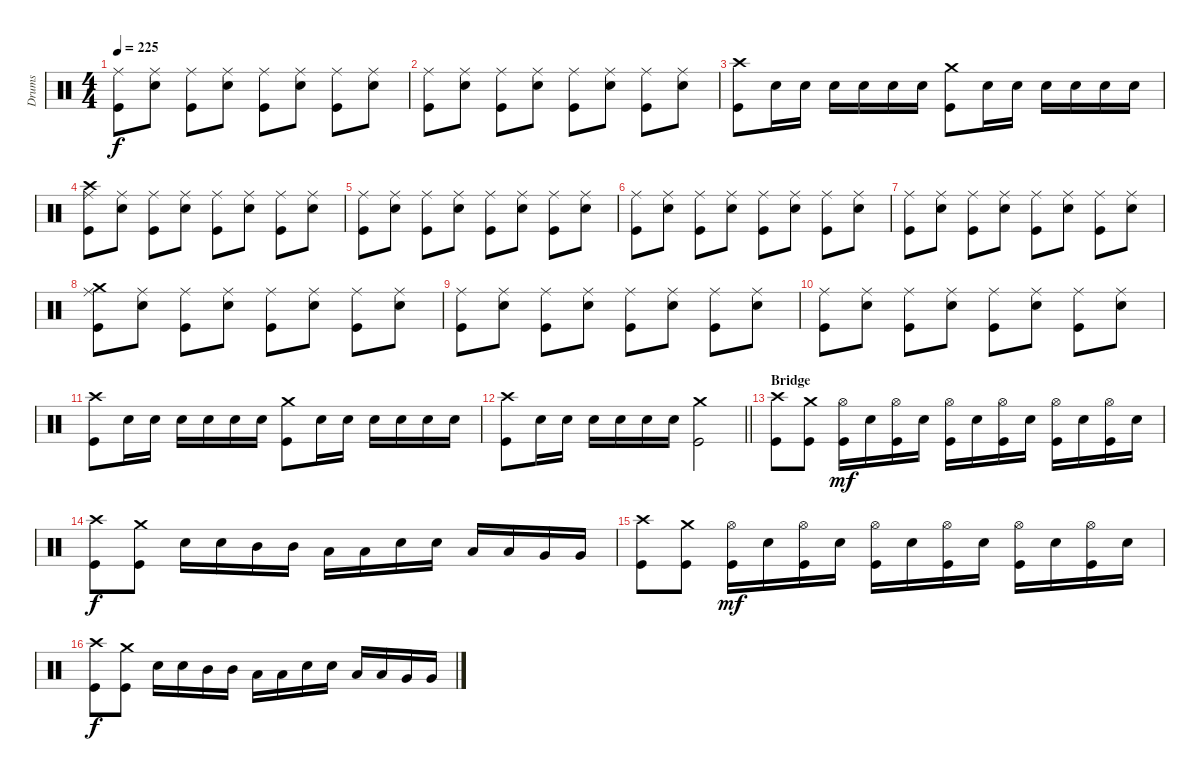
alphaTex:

\track ("Drums" "Drums") {instrument percussion}
\staff {score}
\articulation defaults
\ts (4 4)
\tempo 225
\clef neutral
\ks c
("Ride (middle)" "Kick (hit)").8{dy f} ("Ride (middle)" "Electric Snare (hit)").8 ("Ride (middle)" "Kick (hit)").8 ("Ride (middle)" "Electric Snare (hit)").8 ("Ride (middle)" "Kick (hit)").8 ("Ride (middle)" "Electric Snare (hit)").8 ("Ride (middle)" "Kick (hit)").8 ("Ride (middle)" "Electric Snare (hit)").8 |
("Ride (middle)" "Kick (hit)").8 ("Ride (middle)" "Electric Snare (hit)").8 ("Ride (middle)" "Kick (hit)").8 ("Ride (middle)" "Electric Snare (hit)").8 ("Ride (middle)" "Kick (hit)").8 ("Ride (middle)" "Electric Snare (hit)").8 ("Ride (middle)" "Kick (hit)").8 ("Ride (middle)" "Electric Snare (hit)").8 |
("Crash high (hit)" "Kick (hit)").8 "Electric Snare (hit)".16 "Electric Snare (hit)".16 "Electric Snare (hit)".16 "Electric Snare (hit)".16 "Electric Snare (hit)".16 "Electric Snare (hit)".16 ("Crash medium (hit)" "Kick (hit)").8 "Electric Snare (hit)".16 "Electric Snare (hit)".16 "Electric Snare (hit)".16 "Electric Snare (hit)".16 "Electric Snare (hit)".16 "Electric Snare (hit)".16 |
("Crash high (hit)" "Ride (middle)" "Kick (hit)").8 ("Ride (middle)" "Electric Snare (hit)").8 ("Ride (middle)" "Kick (hit)").8 ("Ride (middle)" "Electric Snare (hit)").8 ("Ride (middle)" "Kick (hit)").8 ("Ride (middle)" "Electric Snare (hit)").8 ("Ride (middle)" "Kick (hit)").8 ("Ride (middle)" "Electric Snare (hit)").8 |
("Ride (middle)" "Kick (hit)").8 ("Ride (middle)" "Electric Snare (hit)").8 ("Ride (middle)" "Kick (hit)").8 ("Ride (middle)" "Electric Snare (hit)").8 ("Ride (middle)" "Kick (hit)").8 ("Ride (middle)" "Electric Snare (hit)").8 ("Ride (middle)" "Kick (hit)").8 ("Ride (middle)" "Electric Snare (hit)").8 |
("Ride (middle)" "Kick (hit)").8 ("Ride (middle)" "Electric Snare (hit)").8 ("Ride (middle)" "Kick (hit)").8 ("Ride (middle)" "Electric Snare (hit)").8 ("Ride (middle)" "Kick (hit)").8 ("Ride (middle)" "Electric Snare (hit)").8 ("Ride (middle)" "Kick (hit)").8 ("Ride (middle)" "Electric Snare (hit)").8 |
("Ride (middle)" "Kick (hit)").8 ("Ride (middle)" "Electric Snare (hit)").8 ("Ride (middle)" "Kick (hit)").8 ("Ride (middle)" "Electric Snare (hit)").8 ("Ride (middle)" "Kick (hit)").8 ("Ride (middle)" "Electric Snare (hit)").8 ("Ride (middle)" "Kick (hit)").8 ("Ride (middle)" "Electric Snare (hit)").8 |
("Crash medium (hit)" "Ride (middle)" "Kick (hit)").8 ("Ride (middle)" "Electric Snare (hit)").8 ("Ride (middle)" "Kick (hit)").8 ("Ride (middle)" "Electric Snare (hit)").8 ("Ride (middle)" "Kick (hit)").8 ("Ride (middle)" "Electric Snare (hit)").8 ("Ride (middle)" "Kick (hit)").8 ("Ride (middle)" "Electric Snare (hit)").8 |
("Ride (middle)" "Kick (hit)").8 ("Ride (middle)" "Electric Snare (hit)").8 ("Ride (middle)" "Kick (hit)").8 ("Ride (middle)" "Electric Snare (hit)").8 ("Ride (middle)" "Kick (hit)").8 ("Ride (middle)" "Electric Snare (hit)").8 ("Ride (middle)" "Kick (hit)").8 ("Ride (middle)" "Electric Snare (hit)").8 |
("Ride (middle)" "Kick (hit)").8 ("Ride (middle)" "Electric Snare (hit)").8 ("Ride (middle)" "Kick (hit)").8 ("Ride (middle)" "Electric Snare (hit)").8 ("Ride (middle)" "Kick (hit)").8 ("Ride (middle)" "Electric Snare (hit)").8 ("Ride (middle)" "Kick (hit)").8 ("Ride (middle)" "Electric Snare (hit)").8 |
("Crash high (hit)" "Kick (hit)").8 "Electric Snare (hit)".16 "Electric Snare (hit)".16 "Electric Snare (hit)".16 "Electric Snare (hit)".16 "Electric Snare (hit)".16 "Electric Snare (hit)".16 ("Crash medium (hit)" "Kick (hit)").8 "Electric Snare (hit)".16 "Electric Snare (hit)".16 "Electric Snare (hit)".16 "Electric Snare (hit)".16 "Electric Snare (hit)".16 "Electric Snare (hit)".16 |
\barLineRight lightlight
("Crash high (hit)" "Kick (hit)").8 "Electric Snare (hit)".16 "Electric Snare (hit)".16 "Electric Snare (hit)".16 "Electric Snare (hit)".16 "Electric Snare (hit)".16 "Electric Snare (hit)".16 ("Crash medium (hit)" "Kick (hit)").2 |
\section ("" "Bridge")
("Crash high (hit)" "Kick (hit)").8 ("Crash medium (hit)" "Kick (hit)").8 ("Hi-Hat (open)" "Kick (hit)").16{dy mf} "Electric Snare (hit)".16 ("Hi-Hat (open)" "Kick (hit)").16 "Electric Snare (hit)".16 ("Hi-Hat (open)" "Kick (hit)").16 "Electric Snare (hit)".16 ("Hi-Hat (open)" "Kick (hit)").16 "Electric Snare (hit)".16 ("Hi-Hat (open)" "Kick (hit)").16 "Electric Snare (hit)".16 ("Hi-Hat (open)" "Kick (hit)").16 "Electric Snare (hit)".16 |
("Crash high (hit)" "Kick (hit)").8{dy f} ("Crash medium (hit)" "Kick (hit)").8 "Electric Snare (hit)".16 "Electric Snare (hit)".16 "Mid Tom (hit)".16 "Mid Tom (hit)".16 "Low Tom (hit)".16 "Low Tom (hit)".16 "Electric Snare (hit)".16 "Electric Snare (hit)".16 "Low Tom (hit)".16 "Low Tom (hit)".16 "Very Low Tom (hit)".16 "Very Low Tom (hit)".16 |
("Crash high (hit)" "Kick (hit)").8 ("Crash medium (hit)" "Kick (hit)").8 ("Hi-Hat (open)" "Kick (hit)").16{dy mf} "Electric Snare (hit)".16 ("Hi-Hat (open)" "Kick (hit)").16 "Electric Snare (hit)".16 ("Hi-Hat (open)" "Kick (hit)").16 "Electric Snare (hit)".16 ("Hi-Hat (open)" "Kick (hit)").16 "Electric Snare (hit)".16 ("Hi-Hat (open)" "Kick (hit)").16 "Electric Snare (hit)".16 ("Hi-Hat (open)" "Kick (hit)").16 "Electric Snare (hit)".16 |
("Crash high (hit)" "Kick (hit)").8{dy f} ("Crash medium (hit)" "Kick (hit)").8 "Electric Snare (hit)".16 "Electric Snare (hit)".16 "Mid Tom (hit)".16 "Mid Tom (hit)".16 "Low Tom (hit)".16 "Low Tom (hit)".16 "Electric Snare (hit)".16 "Electric Snare (hit)".16 "Low Tom (hit)".16 "Low Tom (hit)".16 "Very Low Tom (hit)".16 "Very Low Tom (hit)".16
